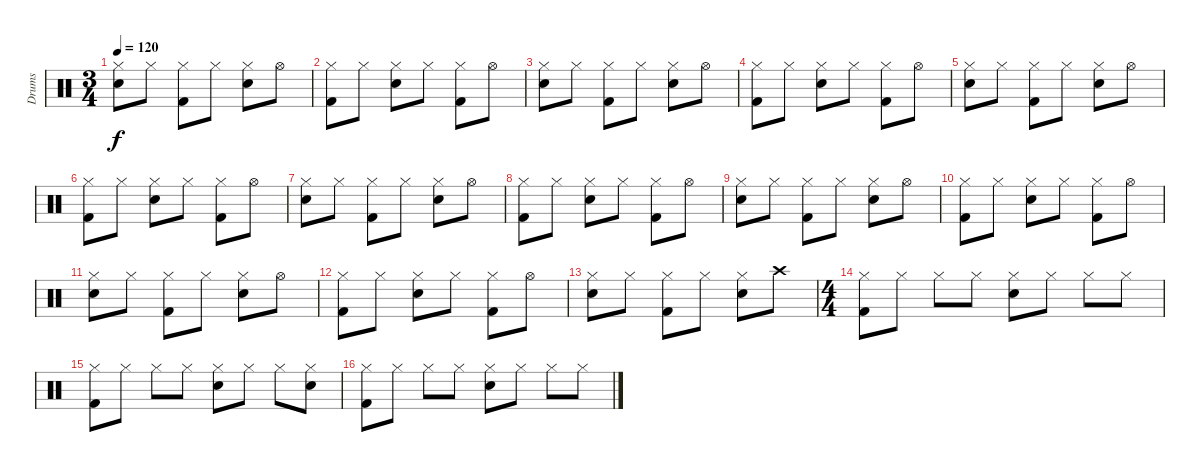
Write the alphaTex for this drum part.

\track ("Drums" "Drums") {instrument percussion}
\staff {score}
\articulation defaults
\ts (3 4)
\tempo 120
\clef neutral
\ks c
("Hi-Hat (closed)" "Electric Snare (hit)").8{dy f} "Hi-Hat (closed)".8 ("Kick (hit) 2" "Hi-Hat (closed)").8 "Hi-Hat (closed)".8 ("Snare (hit) 2" "Hi-Hat (closed)").8 "Hi-Hat (open)".8 |
("Kick (hit) 2" "Hi-Hat (closed)").8 "Hi-Hat (closed)".8 ("Snare (hit) 2" "Hi-Hat (closed)").8 "Hi-Hat (closed)".8 ("Kick (hit) 2" "Hi-Hat (closed)").8 "Hi-Hat (open)".8 |
("Snare (hit) 2" "Hi-Hat (closed)").8 "Hi-Hat (closed)".8 ("Kick (hit) 2" "Hi-Hat (closed)").8 "Hi-Hat (closed)".8 ("Electric Snare (hit)" "Hi-Hat (closed)").8 "Hi-Hat (open)".8 |
("Kick (hit) 2" "Hi-Hat (closed)").8 "Hi-Hat (closed)".8 ("Snare (hit) 2" "Hi-Hat (closed)").8 "Hi-Hat (closed)".8 ("Kick (hit) 2" "Hi-Hat (closed)").8 "Hi-Hat (open)".8 |
("Snare (hit) 2" "Hi-Hat (closed)").8 "Hi-Hat (closed)".8 ("Kick (hit) 2" "Hi-Hat (closed)").8 "Hi-Hat (closed)".8 ("Electric Snare (hit)" "Hi-Hat (closed)").8 "Hi-Hat (open)".8 |
("Kick (hit) 2" "Hi-Hat (closed)").8 "Hi-Hat (closed)".8 ("Snare (hit) 2" "Hi-Hat (closed)").8 "Hi-Hat (closed)".8 ("Kick (hit) 2" "Hi-Hat (closed)").8 "Hi-Hat (open)".8 |
("Snare (hit) 2" "Hi-Hat (closed)").8 "Hi-Hat (closed)".8 ("Kick (hit) 2" "Hi-Hat (closed)").8 "Hi-Hat (closed)".8 ("Electric Snare (hit)" "Hi-Hat (closed)").8 "Hi-Hat (open)".8 |
("Kick (hit) 2" "Hi-Hat (closed)").8 "Hi-Hat (closed)".8 ("Snare (hit) 2" "Hi-Hat (closed)").8 "Hi-Hat (closed)".8 ("Kick (hit) 2" "Hi-Hat (closed)").8 "Hi-Hat (open)".8 |
("Snare (hit) 2" "Hi-Hat (closed)").8 "Hi-Hat (closed)".8 ("Kick (hit) 2" "Hi-Hat (closed)").8 "Hi-Hat (closed)".8 ("Electric Snare (hit)" "Hi-Hat (closed)").8 "Hi-Hat (open)".8 |
("Kick (hit) 2" "Hi-Hat (closed)").8 "Hi-Hat (closed)".8 ("Snare (hit) 2" "Hi-Hat (closed)").8 "Hi-Hat (closed)".8 ("Kick (hit) 2" "Hi-Hat (closed)").8 "Hi-Hat (open)".8 |
("Snare (hit) 2" "Hi-Hat (closed)").8 "Hi-Hat (closed)".8 ("Kick (hit) 2" "Hi-Hat (closed)").8 "Hi-Hat (closed)".8 ("Electric Snare (hit)" "Hi-Hat (closed)").8 "Hi-Hat (open)".8 |
("Kick (hit) 2" "Hi-Hat (closed)").8 "Hi-Hat (closed)".8 ("Snare (hit) 2" "Hi-Hat (closed)").8 "Hi-Hat (closed)".8 ("Kick (hit) 2" "Hi-Hat (closed)").8 "Hi-Hat (open)".8 |
("Snare (hit) 2" "Hi-Hat (closed)").8 "Hi-Hat (closed)".8 ("Kick (hit) 2" "Hi-Hat (closed)").8 "Hi-Hat (closed)".8 ("Electric Snare (hit)" "Hi-Hat (closed)").8 "Crash high (hit)".8 |
\ts (4 4)
("Hi-Hat (closed)" "Kick (hit) 2").8 "Hi-Hat (closed)".8 "Hi-Hat (closed)".8 "Hi-Hat (closed)".8 ("Electric Snare (hit)" "Hi-Hat (closed)").8 "Hi-Hat (closed)".8 "Hi-Hat (closed)".8 "Hi-Hat (closed)".8 |
("Kick (hit) 2" "Hi-Hat (closed)").8 "Hi-Hat (closed)".8 "Hi-Hat (closed)".8 "Hi-Hat (closed)".8 ("Electric Snare (hit)" "Hi-Hat (closed)").8 "Hi-Hat (closed)".8 "Hi-Hat (closed)".8 ("Electric Snare (hit)" "Hi-Hat (closed)").8 |
("Kick (hit) 2" "Hi-Hat (closed)").8 "Hi-Hat (closed)".8 "Hi-Hat (closed)".8 "Hi-Hat (closed)".8 ("Snare (hit) 2" "Hi-Hat (closed)").8 "Hi-Hat (closed)".8 "Hi-Hat (closed)".8 "Hi-Hat (closed)".8
